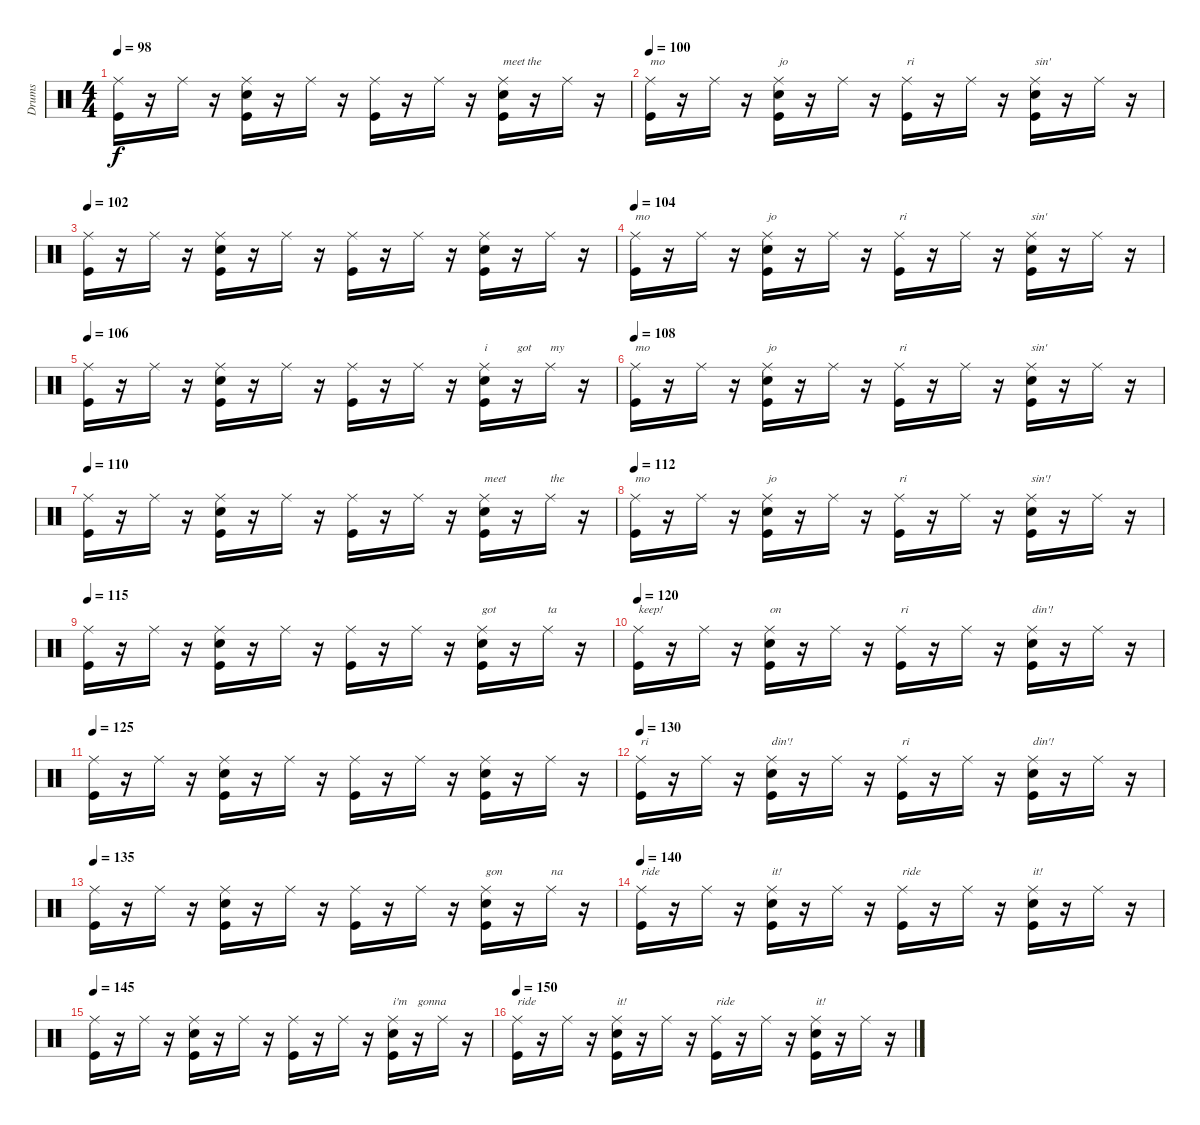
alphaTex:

\track ("Drums" "Drums") {instrument percussion}
\staff {score}
\articulation defaults
\ts (4 4)
\tempo 98
\clef neutral
\ks c
("Kick (hit)" "Ride (middle)").16{dy f} r.16 "Ride (middle)".16 r.16 ("Kick (hit)" "Snare (hit) 2" "Ride (middle)").16 r.16 "Ride (middle)".16 r.16 ("Kick (hit)" "Ride (middle)").16 r.16 "Ride (middle)".16 r.16 ("Kick (hit)" "Snare (hit) 2" "Ride (middle)").16{txt "meet the"} r.16 "Ride (middle)".16 r.16 |
\tempo 100
("Kick (hit)" "Ride (middle)").16{txt "mo"} r.16 "Ride (middle)".16 r.16 ("Kick (hit)" "Snare (hit) 2" "Ride (middle)").16{txt "jo"} r.16 "Ride (middle)".16 r.16 ("Kick (hit)" "Ride (middle)").16{txt "ri"} r.16 "Ride (middle)".16 r.16 ("Kick (hit)" "Snare (hit) 2" "Ride (middle)").16{txt "sin'"} r.16 "Ride (middle)".16 r.16 |
\tempo 102
("Kick (hit)" "Ride (middle)").16 r.16 "Ride (middle)".16 r.16 ("Kick (hit)" "Snare (hit) 2" "Ride (middle)").16 r.16 "Ride (middle)".16 r.16 ("Kick (hit)" "Ride (middle)").16 r.16 "Ride (middle)".16 r.16 ("Kick (hit)" "Snare (hit) 2" "Ride (middle)").16 r.16 "Ride (middle)".16 r.16 |
\tempo 104
("Kick (hit)" "Ride (middle)").16{txt "mo"} r.16 "Ride (middle)".16 r.16 ("Kick (hit)" "Snare (hit) 2" "Ride (middle)").16{txt "jo"} r.16 "Ride (middle)".16 r.16 ("Kick (hit)" "Ride (middle)").16{txt "ri"} r.16 "Ride (middle)".16 r.16 ("Kick (hit)" "Snare (hit) 2" "Ride (middle)").16{txt "sin'"} r.16 "Ride (middle)".16 r.16 |
\tempo 106
("Kick (hit)" "Ride (middle)").16 r.16 "Ride (middle)".16 r.16 ("Kick (hit)" "Snare (hit) 2" "Ride (middle)").16 r.16 "Ride (middle)".16 r.16 ("Kick (hit)" "Ride (middle)").16 r.16 "Ride (middle)".16 r.16 ("Kick (hit)" "Snare (hit) 2" "Ride (middle)").16{txt "i"} r.16{txt "got"} "Ride (middle)".16{txt "my"} r.16 |
\tempo 108
("Kick (hit)" "Ride (middle)").16{txt "mo"} r.16 "Ride (middle)".16 r.16 ("Kick (hit)" "Snare (hit) 2" "Ride (middle)").16{txt "jo"} r.16 "Ride (middle)".16 r.16 ("Kick (hit)" "Ride (middle)").16{txt "ri"} r.16 "Ride (middle)".16 r.16 ("Kick (hit)" "Snare (hit) 2" "Ride (middle)").16{txt "sin'"} r.16 "Ride (middle)".16 r.16 |
\tempo 110
("Kick (hit)" "Ride (middle)").16 r.16 "Ride (middle)".16 r.16 ("Kick (hit)" "Snare (hit) 2" "Ride (middle)").16 r.16 "Ride (middle)".16 r.16 ("Kick (hit)" "Ride (middle)").16 r.16 "Ride (middle)".16 r.16 ("Kick (hit)" "Snare (hit) 2" "Ride (middle)").16{txt "meet"} r.16 "Ride (middle)".16{txt "the"} r.16 |
\tempo 112
("Kick (hit)" "Ride (middle)").16{txt "mo"} r.16 "Ride (middle)".16 r.16 ("Kick (hit)" "Snare (hit) 2" "Ride (middle)").16{txt "jo"} r.16 "Ride (middle)".16 r.16 ("Kick (hit)" "Ride (middle)").16{txt "ri"} r.16 "Ride (middle)".16 r.16 ("Kick (hit)" "Snare (hit) 2" "Ride (middle)").16{txt "sin'!"} r.16 "Ride (middle)".16 r.16 |
\tempo 115
("Kick (hit)" "Ride (middle)").16 r.16 "Ride (middle)".16 r.16 ("Kick (hit)" "Snare (hit) 2" "Ride (middle)").16 r.16 "Ride (middle)".16 r.16 ("Kick (hit)" "Ride (middle)").16 r.16 "Ride (middle)".16 r.16 ("Kick (hit)" "Snare (hit) 2" "Ride (middle)").16{txt "got"} r.16 "Ride (middle)".16{txt "ta"} r.16 |
\tempo 120
("Kick (hit)" "Ride (middle)").16{txt "keep!"} r.16 "Ride (middle)".16 r.16 ("Kick (hit)" "Snare (hit) 2" "Ride (middle)").16{txt "on"} r.16 "Ride (middle)".16 r.16 ("Kick (hit)" "Ride (middle)").16{txt "ri"} r.16 "Ride (middle)".16 r.16 ("Kick (hit)" "Snare (hit) 2" "Ride (middle)").16{txt "din'!"} r.16 "Ride (middle)".16 r.16 |
\tempo 125
("Kick (hit)" "Ride (middle)").16 r.16 "Ride (middle)".16 r.16 ("Kick (hit)" "Snare (hit) 2" "Ride (middle)").16 r.16 "Ride (middle)".16 r.16 ("Kick (hit)" "Ride (middle)").16 r.16 "Ride (middle)".16 r.16 ("Kick (hit)" "Snare (hit) 2" "Ride (middle)").16 r.16 "Ride (middle)".16 r.16 |
\tempo 130
("Kick (hit)" "Ride (middle)").16{txt "ri"} r.16 "Ride (middle)".16 r.16 ("Kick (hit)" "Snare (hit) 2" "Ride (middle)").16{txt "din'!"} r.16 "Ride (middle)".16 r.16 ("Kick (hit)" "Ride (middle)").16{txt "ri"} r.16 "Ride (middle)".16 r.16 ("Kick (hit)" "Snare (hit) 2" "Ride (middle)").16{txt "din'!"} r.16 "Ride (middle)".16 r.16 |
\tempo 135
("Kick (hit)" "Ride (middle)").16 r.16 "Ride (middle)".16 r.16 ("Kick (hit)" "Snare (hit) 2" "Ride (middle)").16 r.16 "Ride (middle)".16 r.16 ("Kick (hit)" "Ride (middle)").16 r.16 "Ride (middle)".16 r.16 ("Kick (hit)" "Snare (hit) 2" "Ride (middle)").16{txt "gon"} r.16 "Ride (middle)".16{txt "na"} r.16 |
\tempo 140
("Kick (hit)" "Ride (middle)").16{txt "ride"} r.16 "Ride (middle)".16 r.16 ("Kick (hit)" "Snare (hit) 2" "Ride (middle)").16{txt "it!"} r.16 "Ride (middle)".16 r.16 ("Kick (hit)" "Ride (middle)").16{txt "ride"} r.16 "Ride (middle)".16 r.16 ("Kick (hit)" "Snare (hit) 2" "Ride (middle)").16{txt "it!"} r.16 "Ride (middle)".16 r.16 |
\tempo 145
("Kick (hit)" "Ride (middle)").16 r.16 "Ride (middle)".16 r.16 ("Kick (hit)" "Snare (hit) 2" "Ride (middle)").16 r.16 "Ride (middle)".16 r.16 ("Kick (hit)" "Ride (middle)").16 r.16 "Ride (middle)".16 r.16 ("Kick (hit)" "Snare (hit) 2" "Ride (middle)").16{txt "i'm"} r.16{txt "gonna"} "Ride (middle)".16 r.16 |
\tempo 150
("Kick (hit)" "Ride (middle)").16{txt "ride"} r.16 "Ride (middle)".16 r.16 ("Kick (hit)" "Snare (hit) 2" "Ride (middle)").16{txt "it!"} r.16 "Ride (middle)".16 r.16 ("Kick (hit)" "Ride (middle)").16{txt "ride"} r.16 "Ride (middle)".16 r.16 ("Kick (hit)" "Snare (hit) 2" "Ride (middle)").16{txt "it!"} r.16 "Ride (middle)".16 r.16
